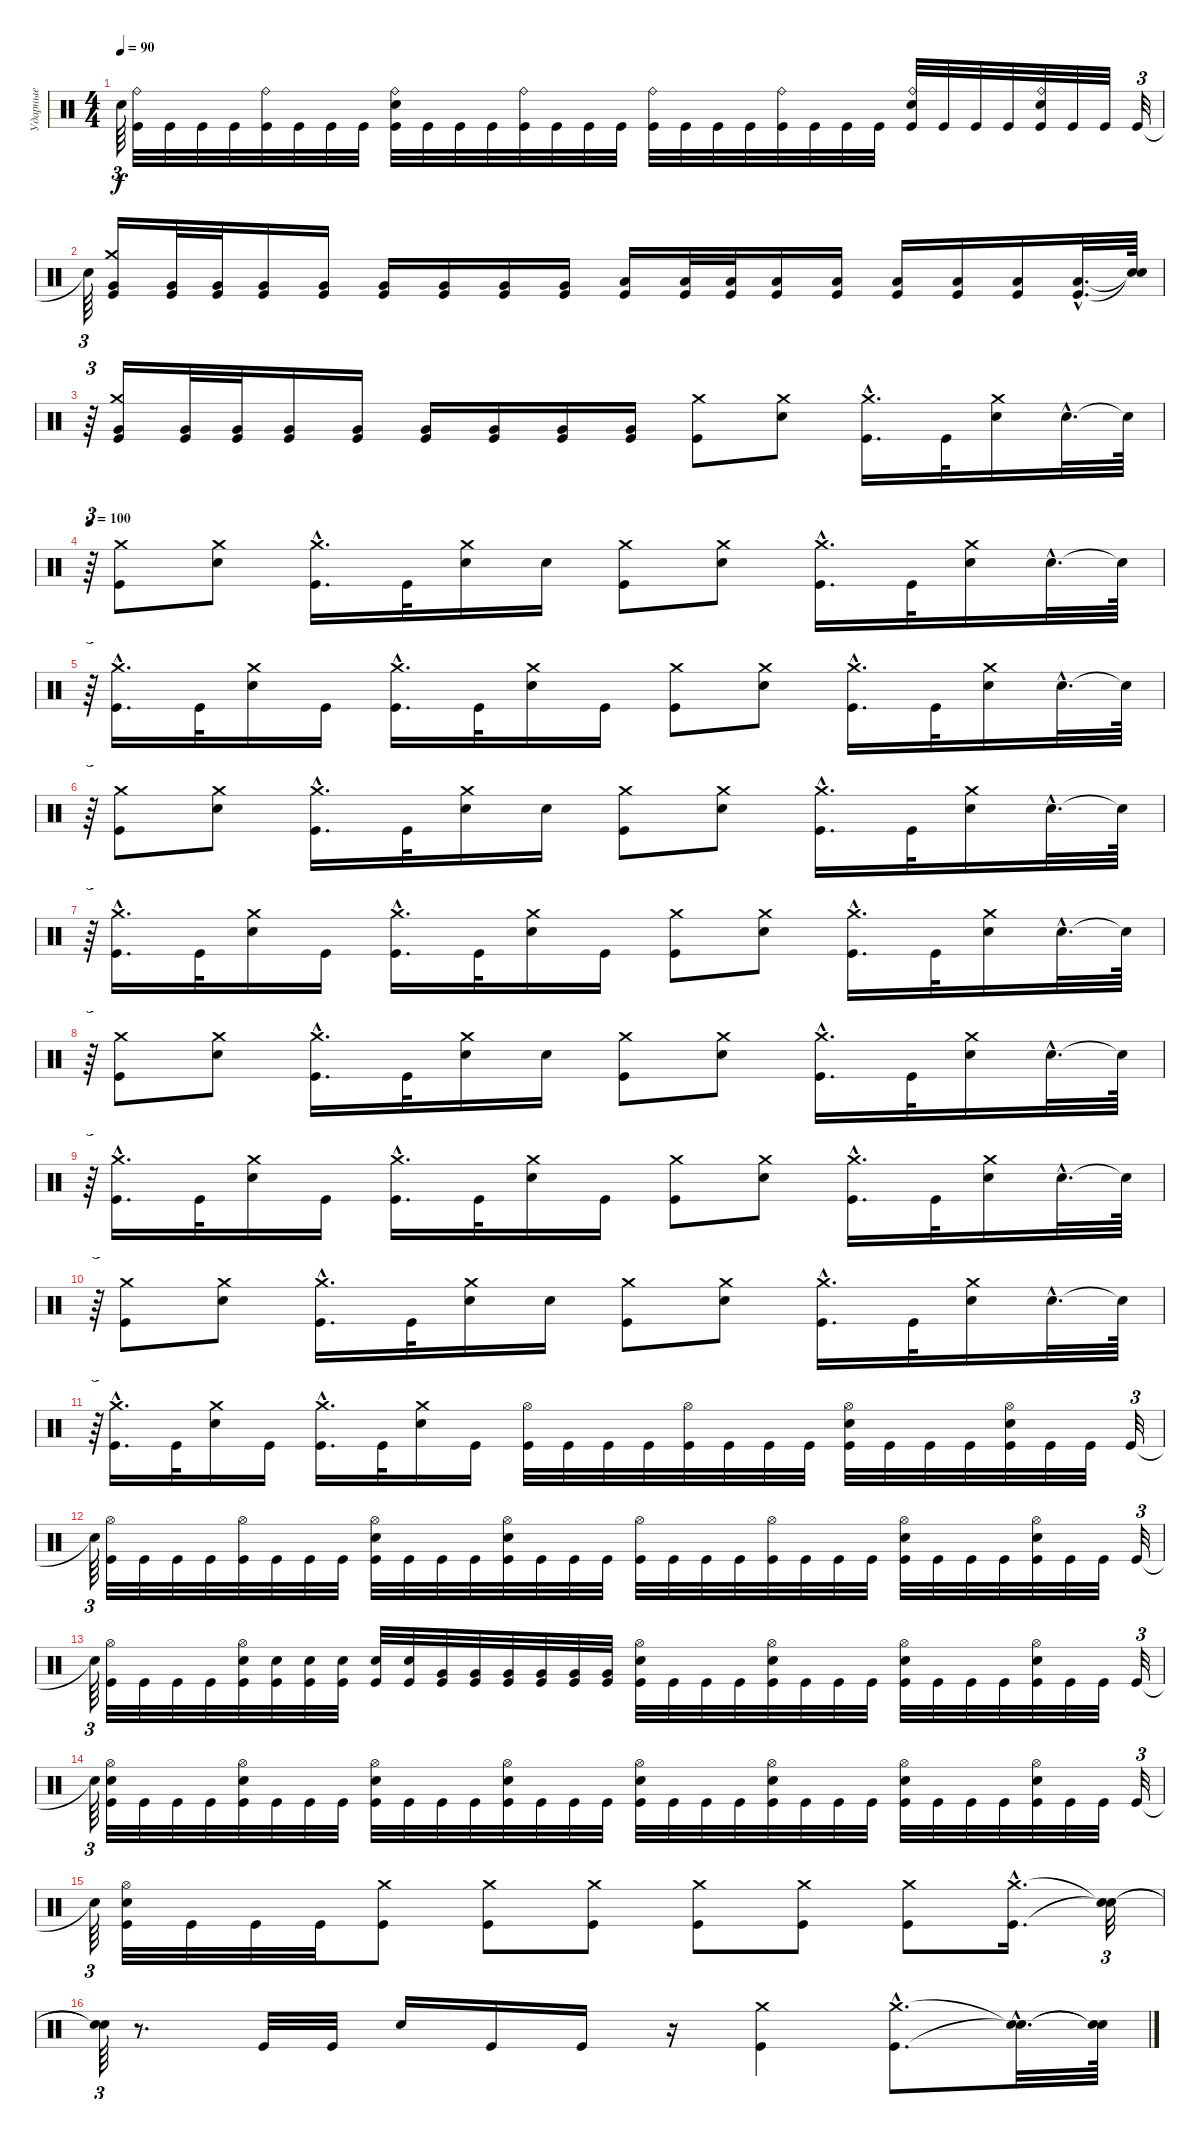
\track ("Ударные" "Ударные") {instrument percussion}
\staff {score}
\articulation defaults
\ts (4 4)
\tempo 90
\clef neutral
\ks c "Snare (hit)"{t}.64{tu (3 2) dy f}
("Ride (bell)" "Kick (hit)").32 "Kick (hit)".32 "Kick (hit)".32 "Kick (hit)".32 ("Ride (bell)" "Kick (hit)").32 "Kick (hit)".32 "Kick (hit)".32 "Kick (hit)".32 ("Ride (bell)" "Snare (hit) 2" "Kick (hit)").32 "Kick (hit)".32 "Kick (hit)".32 "Kick (hit)".32 ("Ride (bell)" "Kick (hit)").32 "Kick (hit)".32 "Kick (hit)".32 "Kick (hit)".32 ("Ride (bell)" "Kick (hit)").32 "Kick (hit)".32 "Kick (hit)".32 "Kick (hit)".32 ("Ride (bell)" "Kick (hit)").32 "Kick (hit)".32 "Kick (hit)".32 "Kick (hit)".32 ("Ride (bell)" "Snare (hit) 2" "Kick (hit)").32 "Kick (hit)".32 "Kick (hit)".32 "Kick (hit)".32 ("Ride (bell)" "Snare (hit) 2" "Kick (hit)").32 "Kick (hit)".32 "Kick (hit)".32 "Kick (hit)".32{tu (3 2)} |
"Snare (hit)"{t}.64{tu (3 2)} ("Crash medium (hit)" "Very Low Tom (hit)" "Kick (hit)").16 ("Very Low Tom (hit)" "Kick (hit)").32 ("Very Low Tom (hit)" "Kick (hit)").32 ("Very Low Tom (hit)" "Kick (hit)").16 ("Very Low Tom (hit)" "Kick (hit)").16 ("Very Low Tom (hit)" "Kick (hit)").16 ("Very Low Tom (hit)" "Kick (hit)").16 ("Very Low Tom (hit)" "Kick (hit)").16 ("Very Low Tom (hit)" "Kick (hit)").16 ("Low Floor Tom (hit)" "Kick (hit)").16 ("Low Floor Tom (hit)" "Kick (hit)").32 ("Low Floor Tom (hit)" "Kick (hit)").32 ("Low Floor Tom (hit)" "Kick (hit)").16 ("Low Floor Tom (hit)" "Kick (hit)").16 ("Low Floor Tom (hit)" "Kick (hit)").16 ("Low Floor Tom (hit)" "Kick (hit)").16 ("Low Floor Tom (hit)" "Kick (hit)").16 ("Low Floor Tom (hit)"{hac} "Kick (hit)"{hac}).32{d} ("Snare (hit)"{t} "Snare (hit)"{t}).64 |
r.64{tu (3 2)} ("Crash medium (hit)" "Very Low Tom (hit)" "Kick (hit)").16 ("Very Low Tom (hit)" "Kick (hit)").32 ("Very Low Tom (hit)" "Kick (hit)").32 ("Very Low Tom (hit)" "Kick (hit)").16 ("Very Low Tom (hit)" "Kick (hit)").16 ("Very Low Tom (hit)" "Kick (hit)").16 ("Very Low Tom (hit)" "Kick (hit)").16 ("Very Low Tom (hit)" "Kick (hit)").16 ("Very Low Tom (hit)" "Kick (hit)").16 ("Crash medium (hit)" "Kick (hit)").8 ("Crash medium (hit)" "Snare (hit) 2").8 ("Crash medium (hit)"{hac} "Kick (hit)"{hac}).16{d} "Kick (hit)".32 ("Crash medium (hit)" "Snare (hit) 2").16 "Snare (hit) 2"{hac}.32{d} "Snare (hit)"{t}.64 |
\tempo 100
r.64{tu (3 2)} ("Crash medium (hit)" "Kick (hit)").8 ("Crash medium (hit)" "Snare (hit) 2").8 ("Crash medium (hit)"{hac} "Kick (hit)"{hac}).16{d} "Kick (hit)".32 ("Crash medium (hit)" "Snare (hit) 2").16 "Snare (hit) 2".16 ("Crash medium (hit)" "Kick (hit)").8 ("Crash medium (hit)" "Snare (hit) 2").8 ("Crash medium (hit)"{hac} "Kick (hit)"{hac}).16{d} "Kick (hit)".32 ("Crash medium (hit)" "Snare (hit) 2").16 "Snare (hit) 2"{hac}.32{d} "Snare (hit)"{t}.64 |
r.64{tu (3 2)} ("Crash medium (hit)"{hac} "Kick (hit)"{hac}).16{d} "Kick (hit)".32 ("Crash medium (hit)" "Snare (hit) 2").16 "Kick (hit)".16 ("Crash medium (hit)"{hac} "Kick (hit)"{hac}).16{d} "Kick (hit)".32 ("Crash medium (hit)" "Snare (hit) 2").16 "Kick (hit)".16 ("Crash medium (hit)" "Kick (hit)").8 ("Crash medium (hit)" "Snare (hit) 2").8 ("Crash medium (hit)"{hac} "Kick (hit)"{hac}).16{d} "Kick (hit)".32 ("Crash medium (hit)" "Snare (hit) 2").16 "Snare (hit) 2"{hac}.32{d} "Snare (hit)"{t}.64 |
r.64{tu (3 2)} ("Crash medium (hit)" "Kick (hit)").8 ("Crash medium (hit)" "Snare (hit) 2").8 ("Crash medium (hit)"{hac} "Kick (hit)"{hac}).16{d} "Kick (hit)".32 ("Crash medium (hit)" "Snare (hit) 2").16 "Snare (hit) 2".16 ("Crash medium (hit)" "Kick (hit)").8 ("Crash medium (hit)" "Snare (hit) 2").8 ("Crash medium (hit)"{hac} "Kick (hit)"{hac}).16{d} "Kick (hit)".32 ("Crash medium (hit)" "Snare (hit) 2").16 "Snare (hit) 2"{hac}.32{d} "Snare (hit)"{t}.64 |
r.64{tu (3 2)} ("Crash medium (hit)"{hac} "Kick (hit)"{hac}).16{d} "Kick (hit)".32 ("Crash medium (hit)" "Snare (hit) 2").16 "Kick (hit)".16 ("Crash medium (hit)"{hac} "Kick (hit)"{hac}).16{d} "Kick (hit)".32 ("Crash medium (hit)" "Snare (hit) 2").16 "Kick (hit)".16 ("Crash medium (hit)" "Kick (hit)").8 ("Crash medium (hit)" "Snare (hit) 2").8 ("Crash medium (hit)"{hac} "Kick (hit)"{hac}).16{d} "Kick (hit)".32 ("Crash medium (hit)" "Snare (hit) 2").16 "Snare (hit) 2"{hac}.32{d} "Snare (hit)"{t}.64 |
r.64{tu (3 2)} ("Crash medium (hit)" "Kick (hit)").8 ("Crash medium (hit)" "Snare (hit) 2").8 ("Crash medium (hit)"{hac} "Kick (hit)"{hac}).16{d} "Kick (hit)".32 ("Crash medium (hit)" "Snare (hit) 2").16 "Snare (hit) 2".16 ("Crash medium (hit)" "Kick (hit)").8 ("Crash medium (hit)" "Snare (hit) 2").8 ("Crash medium (hit)"{hac} "Kick (hit)"{hac}).16{d} "Kick (hit)".32 ("Crash medium (hit)" "Snare (hit) 2").16 "Snare (hit) 2"{hac}.32{d} "Snare (hit)"{t}.64 |
r.64{tu (3 2)} ("Crash medium (hit)"{hac} "Kick (hit)"{hac}).16{d} "Kick (hit)".32 ("Crash medium (hit)" "Snare (hit) 2").16 "Kick (hit)".16 ("Crash medium (hit)"{hac} "Kick (hit)"{hac}).16{d} "Kick (hit)".32 ("Crash medium (hit)" "Snare (hit) 2").16 "Kick (hit)".16 ("Crash medium (hit)" "Kick (hit)").8 ("Crash medium (hit)" "Snare (hit) 2").8 ("Crash medium (hit)"{hac} "Kick (hit)"{hac}).16{d} "Kick (hit)".32 ("Crash medium (hit)" "Snare (hit) 2").16 "Snare (hit) 2"{hac}.32{d} "Snare (hit)"{t}.64 |
r.64{tu (3 2)} ("Crash medium (hit)" "Kick (hit)").8 ("Crash medium (hit)" "Snare (hit) 2").8 ("Crash medium (hit)"{hac} "Kick (hit)"{hac}).16{d} "Kick (hit)".32 ("Crash medium (hit)" "Snare (hit) 2").16 "Snare (hit) 2".16 ("Crash medium (hit)" "Kick (hit)").8 ("Crash medium (hit)" "Snare (hit) 2").8 ("Crash medium (hit)"{hac} "Kick (hit)"{hac}).16{d} "Kick (hit)".32 ("Crash medium (hit)" "Snare (hit) 2").16 "Snare (hit) 2"{hac}.32{d} "Snare (hit)"{t}.64 |
r.64{tu (3 2)} ("Crash medium (hit)"{hac} "Kick (hit)"{hac}).16{d} "Kick (hit)".32 ("Crash medium (hit)" "Snare (hit) 2").16 "Kick (hit)".16 ("Crash medium (hit)"{hac} "Kick (hit)"{hac}).16{d} "Kick (hit)".32 ("Crash medium (hit)" "Snare (hit) 2").16 "Kick (hit)".16 ("Hi-Hat (open)" "Kick (hit)").32 "Kick (hit)".32 "Kick (hit)".32 "Kick (hit)".32 ("Hi-Hat (open)" "Kick (hit)").32 "Kick (hit)".32 "Kick (hit)".32 "Kick (hit)".32 ("Hi-Hat (open)" "Snare (hit) 2" "Kick (hit)").32 "Kick (hit)".32 "Kick (hit)".32 "Kick (hit)".32 ("Hi-Hat (open)" "Snare (hit) 2" "Kick (hit)").32 "Kick (hit)".32 "Kick (hit)".32 "Kick (hit)".32{tu (3 2)} |
"Snare (hit)"{t}.64{tu (3 2)} ("Hi-Hat (open)" "Kick (hit)").32 "Kick (hit)".32 "Kick (hit)".32 "Kick (hit)".32 ("Hi-Hat (open)" "Kick (hit)").32 "Kick (hit)".32 "Kick (hit)".32 "Kick (hit)".32 ("Hi-Hat (open)" "Snare (hit) 2" "Kick (hit)").32 "Kick (hit)".32 "Kick (hit)".32 "Kick (hit)".32 ("Hi-Hat (open)" "Snare (hit) 2" "Kick (hit)").32 "Kick (hit)".32 "Kick (hit)".32 "Kick (hit)".32 ("Hi-Hat (open)" "Kick (hit)").32 "Kick (hit)".32 "Kick (hit)".32 "Kick (hit)".32 ("Hi-Hat (open)" "Kick (hit)").32 "Kick (hit)".32 "Kick (hit)".32 "Kick (hit)".32 ("Hi-Hat (open)" "Snare (hit) 2" "Kick (hit)").32 "Kick (hit)".32 "Kick (hit)".32 "Kick (hit)".32 ("Hi-Hat (open)" "Snare (hit) 2" "Kick (hit)").32 "Kick (hit)".32 "Kick (hit)".32 "Kick (hit)".32{tu (3 2)} |
"Snare (hit)"{t}.64{tu (3 2)} ("Hi-Hat (open)" "Kick (hit)").32 "Kick (hit)".32 "Kick (hit)".32 "Kick (hit)".32 ("Hi-Hat (open)" "Snare (hit) 2" "Kick (hit)").32 ("Snare (hit) 2" "Kick (hit)").32 ("Snare (hit) 2" "Kick (hit)").32 ("Snare (hit) 2" "Kick (hit)").32 ("Snare (hit) 2" "Kick (hit)").32 ("Snare (hit) 2" "Kick (hit)").32 ("Very Low Tom (hit)" "Kick (hit)").32 ("Very Low Tom (hit)" "Kick (hit)").32 ("Very Low Tom (hit)" "Kick (hit)").32 ("Very Low Tom (hit)" "Kick (hit)").32 ("Very Low Tom (hit)" "Kick (hit)").32 ("Very Low Tom (hit)" "Kick (hit)").32 ("Hi-Hat (open)" "Snare (hit) 2" "Kick (hit)").32 "Kick (hit)".32 "Kick (hit)".32 "Kick (hit)".32 ("Hi-Hat (open)" "Snare (hit) 2" "Kick (hit)").32 "Kick (hit)".32 "Kick (hit)".32 "Kick (hit)".32 ("Hi-Hat (open)" "Snare (hit) 2" "Kick (hit)").32 "Kick (hit)".32 "Kick (hit)".32 "Kick (hit)".32 ("Hi-Hat (open)" "Snare (hit) 2" "Kick (hit)").32 "Kick (hit)".32 "Kick (hit)".32 "Kick (hit)".32{tu (3 2)} |
"Snare (hit)"{t}.64{tu (3 2)} ("Hi-Hat (open)" "Snare (hit) 2" "Kick (hit)").32 "Kick (hit)".32 "Kick (hit)".32 "Kick (hit)".32 ("Hi-Hat (open)" "Snare (hit) 2" "Kick (hit)").32 "Kick (hit)".32 "Kick (hit)".32 "Kick (hit)".32 ("Hi-Hat (open)" "Snare (hit) 2" "Kick (hit)").32 "Kick (hit)".32 "Kick (hit)".32 "Kick (hit)".32 ("Hi-Hat (open)" "Snare (hit) 2" "Kick (hit)").32 "Kick (hit)".32 "Kick (hit)".32 "Kick (hit)".32 ("Hi-Hat (open)" "Snare (hit) 2" "Kick (hit)").32 "Kick (hit)".32 "Kick (hit)".32 "Kick (hit)".32 ("Hi-Hat (open)" "Snare (hit) 2" "Kick (hit)").32 "Kick (hit)".32 "Kick (hit)".32 "Kick (hit)".32 ("Hi-Hat (open)" "Snare (hit) 2" "Kick (hit)").32 "Kick (hit)".32 "Kick (hit)".32 "Kick (hit)".32 ("Hi-Hat (open)" "Snare (hit) 2" "Kick (hit)").32 "Kick (hit)".32 "Kick (hit)".32 "Kick (hit)".32{tu (3 2)} |
"Snare (hit)"{t}.64{tu (3 2)} ("Hi-Hat (open)" "Snare (hit) 2" "Kick (hit)").32 "Kick (hit)".32 "Kick (hit)".32 "Kick (hit)".32 ("Crash medium (hit)" "Kick (hit)").8 ("Crash medium (hit)" "Kick (hit)").8 ("Crash medium (hit)" "Kick (hit)").8 ("Crash medium (hit)" "Kick (hit)").8 ("Crash medium (hit)" "Kick (hit)").8 ("Crash medium (hit)" "Kick (hit)").8 ("Crash medium (hit)"{hac} "Kick (hit)"{hac}).16{d} ("Snare (hit)"{t} "Snare (hit)"{t}).32{tu (3 2)} |
("Snare (hit)"{t} "Snare (hit)"{t}).64{tu (3 2)} r.8{d} "Kick (hit)".32 "Kick (hit)".32 "Snare (hit) 2".16 "Kick (hit)".16 "Kick (hit)".16 r.16 ("Crash medium (hit)" "Kick (hit)").4 ("Crash medium (hit)"{hac} "Kick (hit)"{hac}).8{d} ("Snare (hit)"{hac t} "Snare (hit)"{hac t}).32{d} ("Snare (hit)"{t} "Snare (hit)"{t}).64
